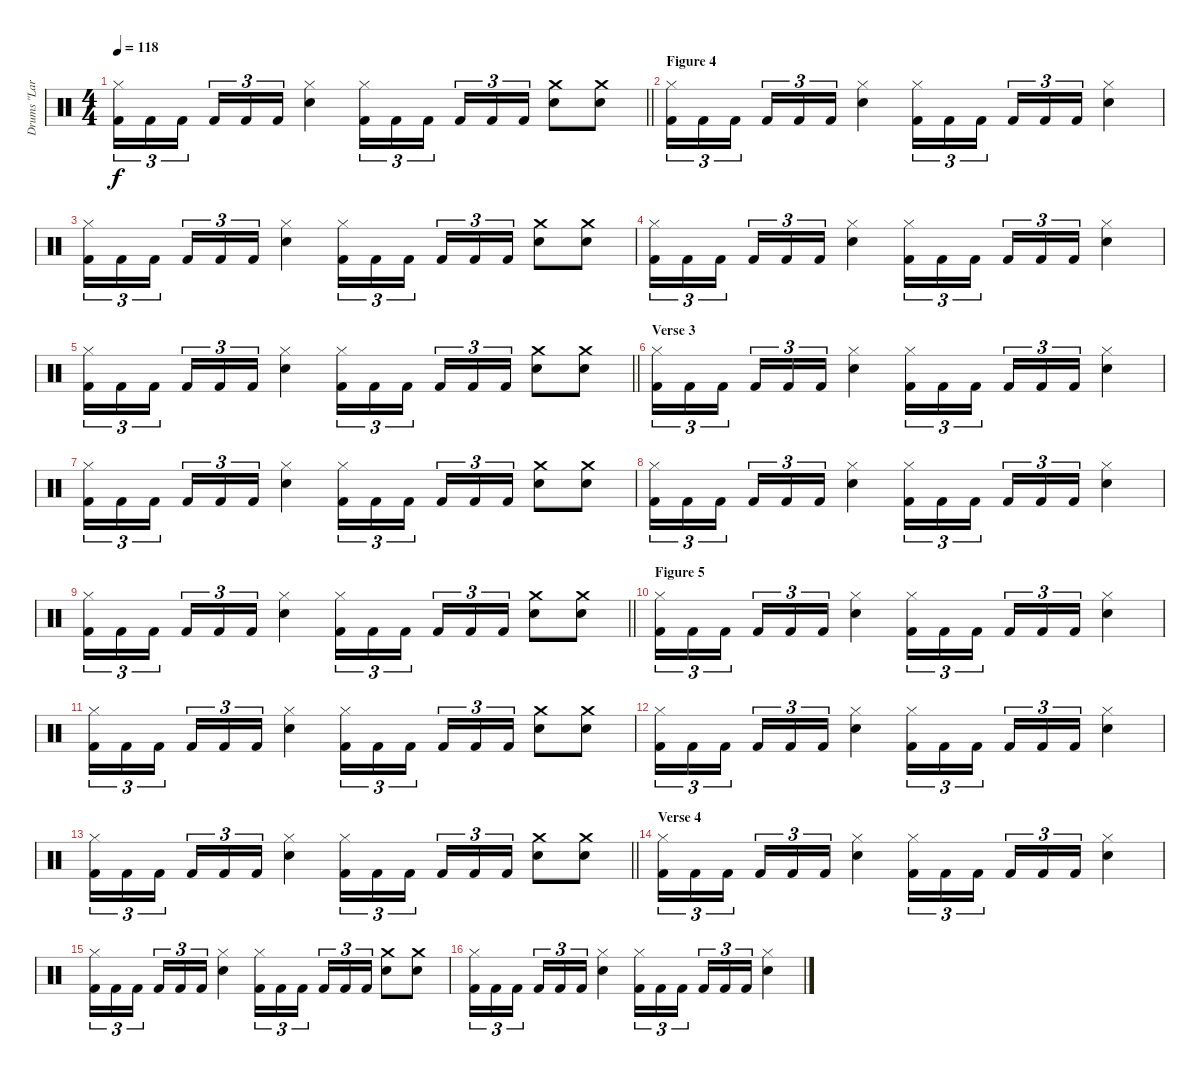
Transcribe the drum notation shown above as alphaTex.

\track ("Drums \"Lars Ulrich\"" "Drums \"Lar") {instrument percussion}
\staff {score}
\articulation defaults
\ts (4 4)
\tempo 118
\clef neutral
\barLineRight lightlight
\ks c
("Hi-Hat (closed)" "Kick (hit) 2").16{tu (3 2) dy f} "Kick (hit) 2".16{tu (3 2)} "Kick (hit) 2".16{tu (3 2) beam splitsecondary} "Kick (hit) 2".16{tu (3 2)} "Kick (hit) 2".16{tu (3 2)} "Kick (hit) 2".16{tu (3 2)} ("Hi-Hat (closed)" "Electric Snare (hit)").4 ("Hi-Hat (closed)" "Kick (hit) 2").16{tu (3 2)} "Kick (hit) 2".16{tu (3 2)} "Kick (hit) 2".16{tu (3 2) beam splitsecondary} "Kick (hit) 2".16{tu (3 2)} "Kick (hit) 2".16{tu (3 2)} "Kick (hit) 2".16{tu (3 2)} ("Crash medium (hit)" "Electric Snare (hit)").8 ("Crash medium (hit)" "Electric Snare (hit)").8 |
\section ("" "Figure 4")
("Hi-Hat (closed)" "Kick (hit) 2").16{tu (3 2)} "Kick (hit) 2".16{tu (3 2)} "Kick (hit) 2".16{tu (3 2) beam splitsecondary} "Kick (hit) 2".16{tu (3 2)} "Kick (hit) 2".16{tu (3 2)} "Kick (hit) 2".16{tu (3 2)} ("Hi-Hat (closed)" "Electric Snare (hit)").4 ("Hi-Hat (closed)" "Kick (hit) 2").16{tu (3 2)} "Kick (hit) 2".16{tu (3 2)} "Kick (hit) 2".16{tu (3 2) beam splitsecondary} "Kick (hit) 2".16{tu (3 2)} "Kick (hit) 2".16{tu (3 2)} "Kick (hit) 2".16{tu (3 2)} ("Hi-Hat (closed)" "Electric Snare (hit)").4 |
("Hi-Hat (closed)" "Kick (hit) 2").16{tu (3 2)} "Kick (hit) 2".16{tu (3 2)} "Kick (hit) 2".16{tu (3 2) beam splitsecondary} "Kick (hit) 2".16{tu (3 2)} "Kick (hit) 2".16{tu (3 2)} "Kick (hit) 2".16{tu (3 2)} ("Hi-Hat (closed)" "Electric Snare (hit)").4 ("Hi-Hat (closed)" "Kick (hit) 2").16{tu (3 2)} "Kick (hit) 2".16{tu (3 2)} "Kick (hit) 2".16{tu (3 2) beam splitsecondary} "Kick (hit) 2".16{tu (3 2)} "Kick (hit) 2".16{tu (3 2)} "Kick (hit) 2".16{tu (3 2)} ("Crash medium (hit)" "Electric Snare (hit)").8 ("Crash medium (hit)" "Electric Snare (hit)").8 |
("Hi-Hat (closed)" "Kick (hit) 2").16{tu (3 2)} "Kick (hit) 2".16{tu (3 2)} "Kick (hit) 2".16{tu (3 2) beam splitsecondary} "Kick (hit) 2".16{tu (3 2)} "Kick (hit) 2".16{tu (3 2)} "Kick (hit) 2".16{tu (3 2)} ("Hi-Hat (closed)" "Electric Snare (hit)").4 ("Hi-Hat (closed)" "Kick (hit) 2").16{tu (3 2)} "Kick (hit) 2".16{tu (3 2)} "Kick (hit) 2".16{tu (3 2) beam splitsecondary} "Kick (hit) 2".16{tu (3 2)} "Kick (hit) 2".16{tu (3 2)} "Kick (hit) 2".16{tu (3 2)} ("Hi-Hat (closed)" "Electric Snare (hit)").4 |
\barLineRight lightlight
("Hi-Hat (closed)" "Kick (hit) 2").16{tu (3 2)} "Kick (hit) 2".16{tu (3 2)} "Kick (hit) 2".16{tu (3 2) beam splitsecondary} "Kick (hit) 2".16{tu (3 2)} "Kick (hit) 2".16{tu (3 2)} "Kick (hit) 2".16{tu (3 2)} ("Hi-Hat (closed)" "Electric Snare (hit)").4 ("Hi-Hat (closed)" "Kick (hit) 2").16{tu (3 2)} "Kick (hit) 2".16{tu (3 2)} "Kick (hit) 2".16{tu (3 2) beam splitsecondary} "Kick (hit) 2".16{tu (3 2)} "Kick (hit) 2".16{tu (3 2)} "Kick (hit) 2".16{tu (3 2)} ("Crash medium (hit)" "Electric Snare (hit)").8 ("Crash medium (hit)" "Electric Snare (hit)").8 |
\section ("" "Verse 3")
("Hi-Hat (closed)" "Kick (hit) 2").16{tu (3 2)} "Kick (hit) 2".16{tu (3 2)} "Kick (hit) 2".16{tu (3 2) beam splitsecondary} "Kick (hit) 2".16{tu (3 2)} "Kick (hit) 2".16{tu (3 2)} "Kick (hit) 2".16{tu (3 2)} ("Hi-Hat (closed)" "Electric Snare (hit)").4 ("Hi-Hat (closed)" "Kick (hit) 2").16{tu (3 2)} "Kick (hit) 2".16{tu (3 2)} "Kick (hit) 2".16{tu (3 2) beam splitsecondary} "Kick (hit) 2".16{tu (3 2)} "Kick (hit) 2".16{tu (3 2)} "Kick (hit) 2".16{tu (3 2)} ("Hi-Hat (closed)" "Electric Snare (hit)").4 |
("Hi-Hat (closed)" "Kick (hit) 2").16{tu (3 2)} "Kick (hit) 2".16{tu (3 2)} "Kick (hit) 2".16{tu (3 2) beam splitsecondary} "Kick (hit) 2".16{tu (3 2)} "Kick (hit) 2".16{tu (3 2)} "Kick (hit) 2".16{tu (3 2)} ("Hi-Hat (closed)" "Electric Snare (hit)").4 ("Hi-Hat (closed)" "Kick (hit) 2").16{tu (3 2)} "Kick (hit) 2".16{tu (3 2)} "Kick (hit) 2".16{tu (3 2) beam splitsecondary} "Kick (hit) 2".16{tu (3 2)} "Kick (hit) 2".16{tu (3 2)} "Kick (hit) 2".16{tu (3 2)} ("Crash medium (hit)" "Electric Snare (hit)").8 ("Crash medium (hit)" "Electric Snare (hit)").8 |
("Hi-Hat (closed)" "Kick (hit) 2").16{tu (3 2)} "Kick (hit) 2".16{tu (3 2)} "Kick (hit) 2".16{tu (3 2) beam splitsecondary} "Kick (hit) 2".16{tu (3 2)} "Kick (hit) 2".16{tu (3 2)} "Kick (hit) 2".16{tu (3 2)} ("Hi-Hat (closed)" "Electric Snare (hit)").4 ("Hi-Hat (closed)" "Kick (hit) 2").16{tu (3 2)} "Kick (hit) 2".16{tu (3 2)} "Kick (hit) 2".16{tu (3 2) beam splitsecondary} "Kick (hit) 2".16{tu (3 2)} "Kick (hit) 2".16{tu (3 2)} "Kick (hit) 2".16{tu (3 2)} ("Hi-Hat (closed)" "Electric Snare (hit)").4 |
\barLineRight lightlight
("Hi-Hat (closed)" "Kick (hit) 2").16{tu (3 2)} "Kick (hit) 2".16{tu (3 2)} "Kick (hit) 2".16{tu (3 2) beam splitsecondary} "Kick (hit) 2".16{tu (3 2)} "Kick (hit) 2".16{tu (3 2)} "Kick (hit) 2".16{tu (3 2)} ("Hi-Hat (closed)" "Electric Snare (hit)").4 ("Hi-Hat (closed)" "Kick (hit) 2").16{tu (3 2)} "Kick (hit) 2".16{tu (3 2)} "Kick (hit) 2".16{tu (3 2) beam splitsecondary} "Kick (hit) 2".16{tu (3 2)} "Kick (hit) 2".16{tu (3 2)} "Kick (hit) 2".16{tu (3 2)} ("Crash medium (hit)" "Electric Snare (hit)").8 ("Crash medium (hit)" "Electric Snare (hit)").8 |
\section ("" "Figure 5")
("Hi-Hat (closed)" "Kick (hit) 2").16{tu (3 2)} "Kick (hit) 2".16{tu (3 2)} "Kick (hit) 2".16{tu (3 2) beam splitsecondary} "Kick (hit) 2".16{tu (3 2)} "Kick (hit) 2".16{tu (3 2)} "Kick (hit) 2".16{tu (3 2)} ("Hi-Hat (closed)" "Electric Snare (hit)").4 ("Hi-Hat (closed)" "Kick (hit) 2").16{tu (3 2)} "Kick (hit) 2".16{tu (3 2)} "Kick (hit) 2".16{tu (3 2) beam splitsecondary} "Kick (hit) 2".16{tu (3 2)} "Kick (hit) 2".16{tu (3 2)} "Kick (hit) 2".16{tu (3 2)} ("Hi-Hat (closed)" "Electric Snare (hit)").4 |
("Hi-Hat (closed)" "Kick (hit) 2").16{tu (3 2)} "Kick (hit) 2".16{tu (3 2)} "Kick (hit) 2".16{tu (3 2) beam splitsecondary} "Kick (hit) 2".16{tu (3 2)} "Kick (hit) 2".16{tu (3 2)} "Kick (hit) 2".16{tu (3 2)} ("Hi-Hat (closed)" "Electric Snare (hit)").4 ("Hi-Hat (closed)" "Kick (hit) 2").16{tu (3 2)} "Kick (hit) 2".16{tu (3 2)} "Kick (hit) 2".16{tu (3 2) beam splitsecondary} "Kick (hit) 2".16{tu (3 2)} "Kick (hit) 2".16{tu (3 2)} "Kick (hit) 2".16{tu (3 2)} ("Crash medium (hit)" "Electric Snare (hit)").8 ("Crash medium (hit)" "Electric Snare (hit)").8 |
("Hi-Hat (closed)" "Kick (hit) 2").16{tu (3 2)} "Kick (hit) 2".16{tu (3 2)} "Kick (hit) 2".16{tu (3 2) beam splitsecondary} "Kick (hit) 2".16{tu (3 2)} "Kick (hit) 2".16{tu (3 2)} "Kick (hit) 2".16{tu (3 2)} ("Hi-Hat (closed)" "Electric Snare (hit)").4 ("Hi-Hat (closed)" "Kick (hit) 2").16{tu (3 2)} "Kick (hit) 2".16{tu (3 2)} "Kick (hit) 2".16{tu (3 2) beam splitsecondary} "Kick (hit) 2".16{tu (3 2)} "Kick (hit) 2".16{tu (3 2)} "Kick (hit) 2".16{tu (3 2)} ("Hi-Hat (closed)" "Electric Snare (hit)").4 |
\barLineRight lightlight
("Hi-Hat (closed)" "Kick (hit) 2").16{tu (3 2)} "Kick (hit) 2".16{tu (3 2)} "Kick (hit) 2".16{tu (3 2) beam splitsecondary} "Kick (hit) 2".16{tu (3 2)} "Kick (hit) 2".16{tu (3 2)} "Kick (hit) 2".16{tu (3 2)} ("Hi-Hat (closed)" "Electric Snare (hit)").4 ("Hi-Hat (closed)" "Kick (hit) 2").16{tu (3 2)} "Kick (hit) 2".16{tu (3 2)} "Kick (hit) 2".16{tu (3 2) beam splitsecondary} "Kick (hit) 2".16{tu (3 2)} "Kick (hit) 2".16{tu (3 2)} "Kick (hit) 2".16{tu (3 2)} ("Crash medium (hit)" "Electric Snare (hit)").8 ("Crash medium (hit)" "Electric Snare (hit)").8 |
\section ("" "Verse 4")
("Hi-Hat (closed)" "Kick (hit) 2").16{tu (3 2)} "Kick (hit) 2".16{tu (3 2)} "Kick (hit) 2".16{tu (3 2) beam splitsecondary} "Kick (hit) 2".16{tu (3 2)} "Kick (hit) 2".16{tu (3 2)} "Kick (hit) 2".16{tu (3 2)} ("Hi-Hat (closed)" "Electric Snare (hit)").4 ("Hi-Hat (closed)" "Kick (hit) 2").16{tu (3 2)} "Kick (hit) 2".16{tu (3 2)} "Kick (hit) 2".16{tu (3 2) beam splitsecondary} "Kick (hit) 2".16{tu (3 2)} "Kick (hit) 2".16{tu (3 2)} "Kick (hit) 2".16{tu (3 2)} ("Hi-Hat (closed)" "Electric Snare (hit)").4 |
("Hi-Hat (closed)" "Kick (hit) 2").16{tu (3 2)} "Kick (hit) 2".16{tu (3 2)} "Kick (hit) 2".16{tu (3 2) beam splitsecondary} "Kick (hit) 2".16{tu (3 2)} "Kick (hit) 2".16{tu (3 2)} "Kick (hit) 2".16{tu (3 2)} ("Hi-Hat (closed)" "Electric Snare (hit)").4 ("Hi-Hat (closed)" "Kick (hit) 2").16{tu (3 2)} "Kick (hit) 2".16{tu (3 2)} "Kick (hit) 2".16{tu (3 2) beam splitsecondary} "Kick (hit) 2".16{tu (3 2)} "Kick (hit) 2".16{tu (3 2)} "Kick (hit) 2".16{tu (3 2)} ("Crash medium (hit)" "Electric Snare (hit)").8 ("Crash medium (hit)" "Electric Snare (hit)").8 |
("Hi-Hat (closed)" "Kick (hit) 2").16{tu (3 2)} "Kick (hit) 2".16{tu (3 2)} "Kick (hit) 2".16{tu (3 2) beam splitsecondary} "Kick (hit) 2".16{tu (3 2)} "Kick (hit) 2".16{tu (3 2)} "Kick (hit) 2".16{tu (3 2)} ("Hi-Hat (closed)" "Electric Snare (hit)").4 ("Hi-Hat (closed)" "Kick (hit) 2").16{tu (3 2)} "Kick (hit) 2".16{tu (3 2)} "Kick (hit) 2".16{tu (3 2) beam splitsecondary} "Kick (hit) 2".16{tu (3 2)} "Kick (hit) 2".16{tu (3 2)} "Kick (hit) 2".16{tu (3 2)} ("Hi-Hat (closed)" "Electric Snare (hit)").4
